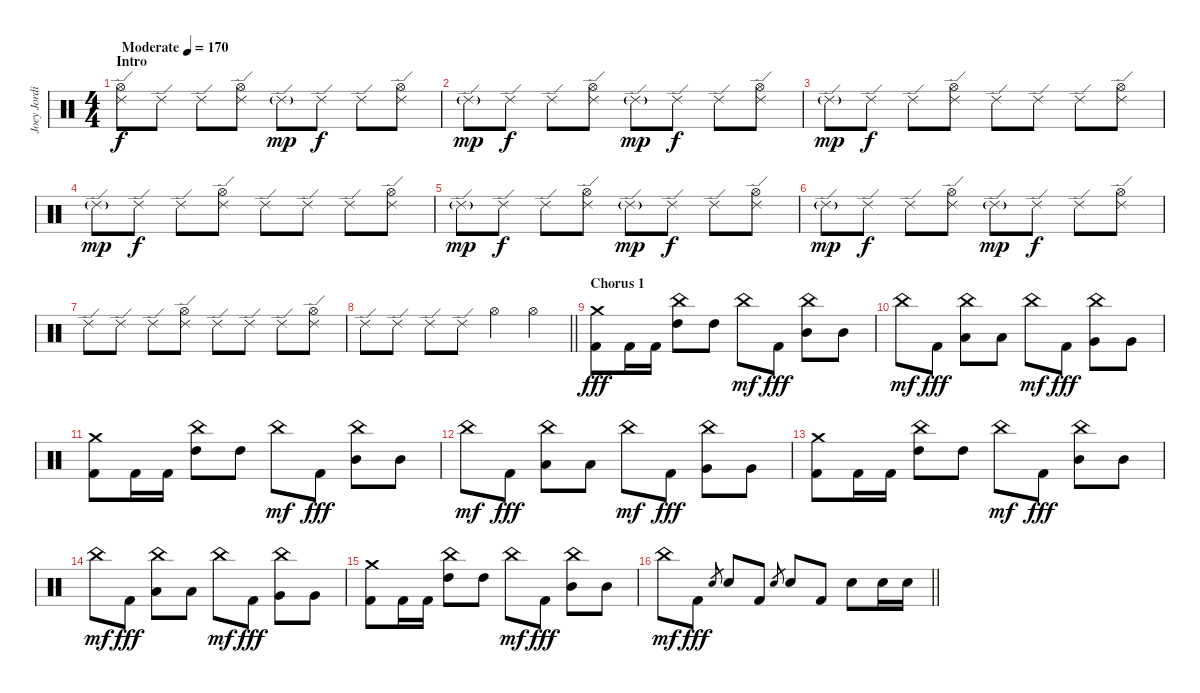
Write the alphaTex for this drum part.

\track ("Joey Jordison" "Joey Jordi") {instrument percussion}
\staff {score}
\articulation defaults
\ts (4 4)
\section ("" "Intro")
\tempo (170 "Moderate")
\clef neutral
\ks c
("Ride (edge) 2" "Hi-Hat (open)").8{dy f} "Ride (edge) 2".8 "Ride (edge) 2".8 ("Ride (edge) 2" "Hi-Hat (open)").8 "Ride (edge) 2"{g}.8{dy mp} "Ride (edge) 2".8{dy f} "Ride (edge) 2".8 ("Ride (edge) 2" "Hi-Hat (open)").8 |
"Ride (edge) 2"{g}.8{dy mp} "Ride (edge) 2".8{dy f} "Ride (edge) 2".8 ("Ride (edge) 2" "Hi-Hat (open)").8 "Ride (edge) 2"{g}.8{dy mp} "Ride (edge) 2".8{dy f} "Ride (edge) 2".8 ("Ride (edge) 2" "Hi-Hat (open)").8 |
"Ride (edge) 2"{g}.8{dy mp} "Ride (edge) 2".8{dy f} "Ride (edge) 2".8 ("Ride (edge) 2" "Hi-Hat (open)").8 "Ride (edge) 2".8 "Ride (edge) 2".8 "Ride (edge) 2".8 ("Ride (edge) 2" "Hi-Hat (open)").8 |
"Ride (edge) 2"{g}.8{dy mp} "Ride (edge) 2".8{dy f} "Ride (edge) 2".8 ("Ride (edge) 2" "Hi-Hat (open)").8 "Ride (edge) 2".8 "Ride (edge) 2".8 "Ride (edge) 2".8 ("Ride (edge) 2" "Hi-Hat (open)").8 |
"Ride (edge) 2"{g}.8{dy mp} "Ride (edge) 2".8{dy f} "Ride (edge) 2".8 ("Ride (edge) 2" "Hi-Hat (open)").8 "Ride (edge) 2"{g}.8{dy mp} "Ride (edge) 2".8{dy f} "Ride (edge) 2".8 ("Ride (edge) 2" "Hi-Hat (open)").8 |
"Ride (edge) 2"{g}.8{dy mp} "Ride (edge) 2".8{dy f} "Ride (edge) 2".8 ("Ride (edge) 2" "Hi-Hat (open)").8 "Ride (edge) 2"{g}.8{dy mp} "Ride (edge) 2".8{dy f} "Ride (edge) 2".8 ("Ride (edge) 2" "Hi-Hat (open)").8 |
"Ride (edge) 2".8 "Ride (edge) 2".8 "Ride (edge) 2".8 ("Ride (edge) 2" "Hi-Hat (open)").8 "Ride (edge) 2".8 "Ride (edge) 2".8 "Ride (edge) 2".8 ("Ride (edge) 2" "Hi-Hat (open)").8 |
\barLineRight lightlight "Ride (edge) 2".8 "Ride (edge) 2".8 "Ride (edge) 2".8 "Ride (edge) 2".8 "Hi-Hat (open)".4 "Hi-Hat (open)".4
|
\section ("" "Chorus 1")
("Crash medium (hit)" "Kick (hit) 2").8{dy fff} "Kick (hit) 2".16 "Kick (hit) 2".16 ("China (hit)" "High Tom (hit)").8 "High Tom (hit)".8 "China (hit)".8{dy mf} "Kick (hit) 2".8{dy fff} ("China (hit)" "Mid Tom (hit)").8 "Mid Tom (hit)".8 |
"China (hit)".8{dy mf} "Kick (hit) 2".8{dy fff} ("China (hit)" "Low Tom (hit)").8 "Low Tom (hit)".8 "China (hit)".8{dy mf} "Kick (hit) 2".8{dy fff} ("China (hit)" "Very Low Tom (hit)").8 "Very Low Tom (hit)".8 |
("Crash medium (hit)" "Kick (hit) 2").8 "Kick (hit) 2".16 "Kick (hit) 2".16 ("China (hit)" "High Tom (hit)").8 "High Tom (hit)".8 "China (hit)".8{dy mf} "Kick (hit) 2".8{dy fff} ("China (hit)" "Mid Tom (hit)").8 "Mid Tom (hit)".8 |
"China (hit)".8{dy mf} "Kick (hit) 2".8{dy fff} ("China (hit)" "Low Tom (hit)").8 "Low Tom (hit)".8 "China (hit)".8{dy mf} "Kick (hit) 2".8{dy fff} ("China (hit)" "Very Low Tom (hit)").8 "Very Low Tom (hit)".8 |
("Crash medium (hit)" "Kick (hit) 2").8 "Kick (hit) 2".16 "Kick (hit) 2".16 ("China (hit)" "High Tom (hit)").8 "High Tom (hit)".8 "China (hit)".8{dy mf} "Kick (hit) 2".8{dy fff} ("China (hit)" "Mid Tom (hit)").8 "Mid Tom (hit)".8 |
"China (hit)".8{dy mf} "Kick (hit) 2".8{dy fff} ("China (hit)" "Low Tom (hit)").8 "Low Tom (hit)".8 "China (hit)".8{dy mf} "Kick (hit) 2".8{dy fff} ("China (hit)" "Very Low Tom (hit)").8 "Very Low Tom (hit)".8 |
("Crash medium (hit)" "Kick (hit) 2").8 "Kick (hit) 2".16 "Kick (hit) 2".16 ("China (hit)" "High Tom (hit)").8 "High Tom (hit)".8 "China (hit)".8{dy mf} "Kick (hit) 2".8{dy fff} ("China (hit)" "Mid Tom (hit)").8 "Mid Tom (hit)".8 |
\barLineRight lightlight "China (hit)".8{dy mf} "Kick (hit) 2".8{dy fff} "Electric Snare (hit)".8{gr} "Electric Snare (hit)".8 "Kick (hit) 2".8 "Electric Snare (hit)".8{gr} "Electric Snare (hit)".8 "Kick (hit) 2".8 "Electric Snare (hit)".8 "Electric Snare (hit)".16 "Electric Snare (hit)".16
